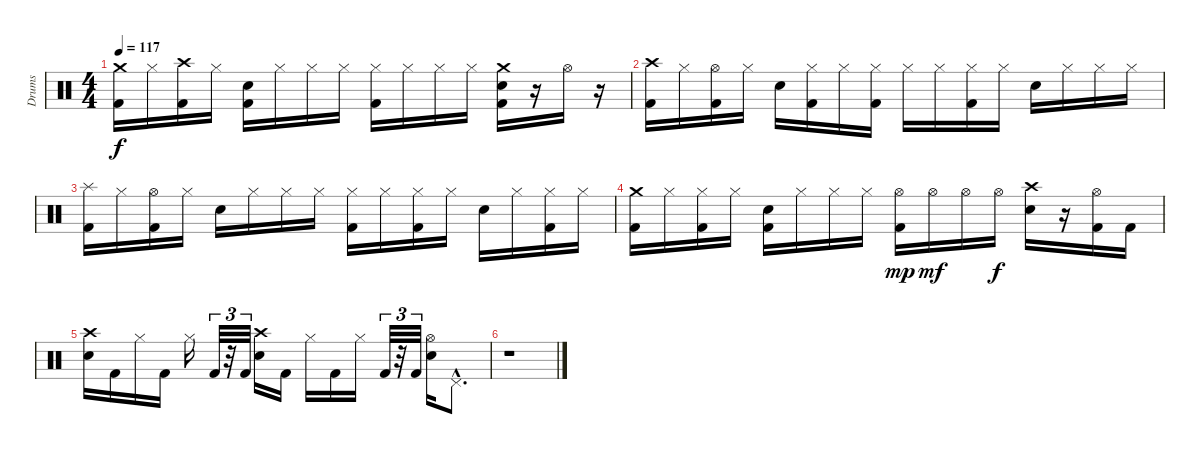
\track ("Drums" "Drums") {instrument percussion}
\staff {score}
\articulation defaults
\ts (4 4)
\tempo 117
\clef neutral
\ks c
("Crash medium (hit)" "Kick (hit) 2").16{dy f} "Hi-Hat (closed)".16 ("Crash high (hit)" "Kick (hit) 2").16 "Hi-Hat (closed)".16 ("Electric Snare (hit)" "Kick (hit) 2").16 "Hi-Hat (closed)".16 "Hi-Hat (closed)".16 "Hi-Hat (closed)".16 ("Hi-Hat (closed)" "Kick (hit) 2").16 "Hi-Hat (closed)".16 "Hi-Hat (closed)".16 "Hi-Hat (closed)".16 ("Crash medium (hit)" "Electric Snare (hit)" "Kick (hit) 2").16 r.16 "Hi-Hat (open)".16 r.16 |
("Crash high (hit)" "Kick (hit) 2").16 "Hi-Hat (closed)".16 ("Hi-Hat (open)" "Kick (hit) 2").16 "Hi-Hat (closed)".16 "Electric Snare (hit)".16 ("Hi-Hat (closed)" "Kick (hit) 2").16 "Hi-Hat (closed)".16 ("Hi-Hat (closed)" "Kick (hit) 2").16 "Hi-Hat (closed)".16 "Hi-Hat (closed)".16 ("Hi-Hat (closed)" "Kick (hit) 2").16 "Hi-Hat (closed)".16 "Electric Snare (hit)".16 "Hi-Hat (closed)".16 "Hi-Hat (closed)".16 "Hi-Hat (closed)".16 |
("Splash (hit)" "Kick (hit) 2").16 "Hi-Hat (closed)".16 ("Hi-Hat (open)" "Kick (hit) 2").16 "Hi-Hat (closed)".16 "Electric Snare (hit)".16 "Hi-Hat (closed)".16 "Hi-Hat (closed)".16 "Hi-Hat (closed)".16 ("Hi-Hat (closed)" "Kick (hit) 2").16 "Hi-Hat (closed)".16 ("Hi-Hat (closed)" "Kick (hit) 2").16 "Hi-Hat (closed)".16 "Electric Snare (hit)".16 "Hi-Hat (closed)".16 ("Hi-Hat (closed)" "Kick (hit) 2").16 "Hi-Hat (closed)".16 |
("Crash medium (hit)" "Kick (hit) 2").16 "Hi-Hat (closed)".16 ("Hi-Hat (closed)" "Kick (hit) 2").16 "Hi-Hat (closed)".16 ("Electric Snare (hit)" "Kick (hit) 2").16 "Hi-Hat (closed)".16 "Hi-Hat (closed)".16 "Hi-Hat (closed)".16 ("Hi-Hat (open)" "Kick (hit) 2").16{dy mp} "Hi-Hat (open)".16{dy mf} "Hi-Hat (open)".16 "Hi-Hat (open)".16{dy f} ("Crash high (hit)" "Electric Snare (hit)").16 r.16 ("Hi-Hat (open)" "Kick (hit) 2").16 "Kick (hit) 2".16 |
("Crash high (hit)" "Electric Snare (hit)").16 "Kick (hit) 2".16 "Hi-Hat (closed)".16 "Kick (hit) 2".16 "Hi-Hat (closed)".16 "Kick (hit) 2".32{tu (3 2)} r.32{tu (3 2)} "Kick (hit) 2".32{tu (3 2)} ("Crash high (hit)" "Electric Snare (hit)").16 "Kick (hit) 2".16 "Hi-Hat (closed)".16 "Kick (hit) 2".16 "Hi-Hat (closed)".16 "Kick (hit) 2".32{tu (3 2)} r.32{tu (3 2)} "Kick (hit) 2".32{tu (3 2)} ("Hi-Hat (open)" "Electric Snare (hit)").16 "Pedal Hi-Hat (hit)"{hac}.8{d} |
r.1
